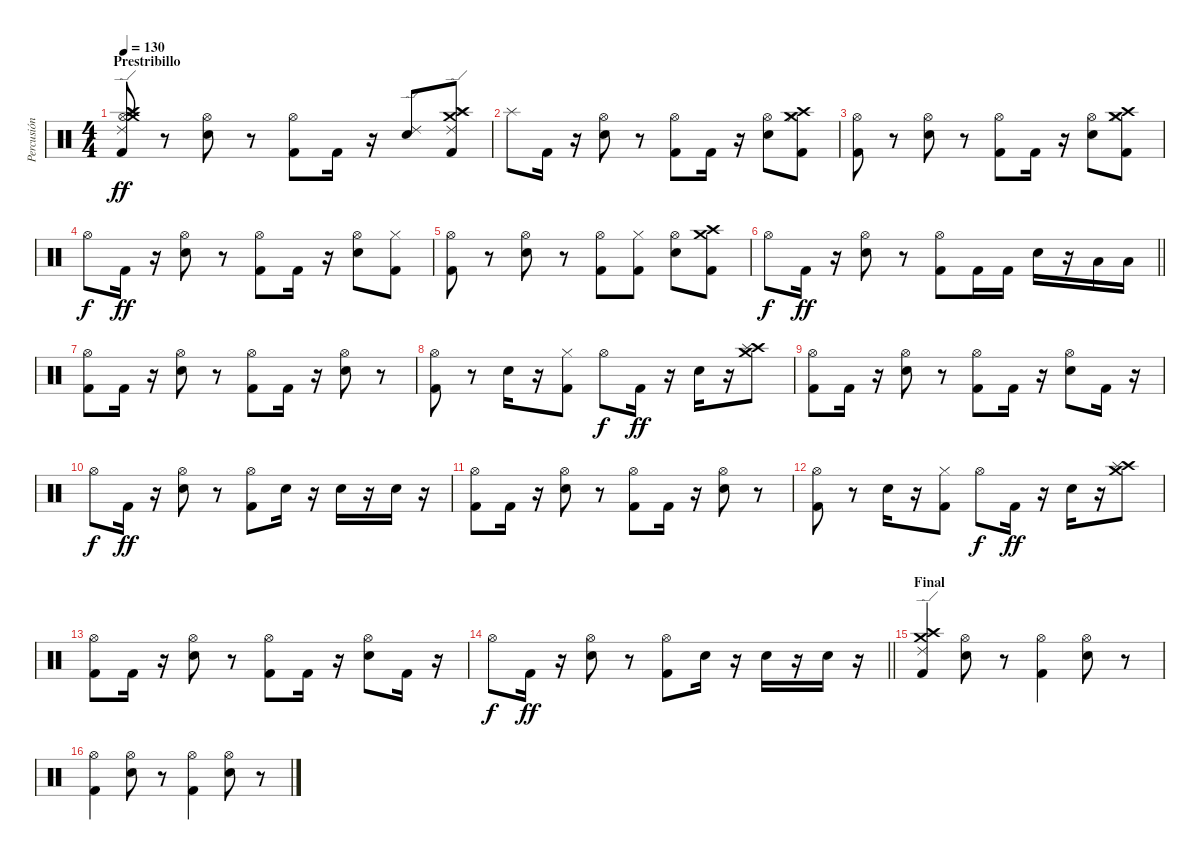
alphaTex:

\track ("Percusión" "Percusión") {instrument percussion}
\staff {score}
\articulation defaults
\ts (4 4)
\section ("" "Prestribillo")
\tempo 130
\clef neutral
\ks c
("Kick (hit) 2" "Hi-Hat (open)" "Crash high (hit)" "Splash (hit)" "Crash medium (hit)" "Ride (edge) 2").8{dy ff} r.8 ("Snare (hit) 2" "Hi-Hat (open)").8 r.8 ("Kick (hit) 2" "Hi-Hat (open)").8 "Kick (hit) 2".16 r.16 ("Snare (hit) 2" "Ride (edge) 2").8 ("Kick (hit) 2" "Crash high (hit)" "Splash (hit)" "Crash medium (hit)" "Ride (edge) 2").8 |
"Splash (hit)".8 "Kick (hit) 2".16 r.16 ("Snare (hit) 2" "Hi-Hat (open)").8 r.8 ("Kick (hit) 2" "Hi-Hat (open)").8 "Kick (hit) 2".16 r.16 ("Snare (hit) 2" "Hi-Hat (open)").8 ("Kick (hit) 2" "Hi-Hat (closed)" "Crash high (hit)" "Crash medium (hit)").8 |
("Kick (hit) 2" "Hi-Hat (open)").8 r.8 ("Snare (hit) 2" "Hi-Hat (open)").8 r.8 ("Kick (hit) 2" "Hi-Hat (open)").8 "Kick (hit) 2".16 r.16 ("Snare (hit) 2" "Hi-Hat (open)").8 ("Kick (hit) 2" "Hi-Hat (closed)" "Crash high (hit)" "Crash medium (hit)").8 |
"Hi-Hat (open)".8{dy f} "Kick (hit) 2".16{dy ff} r.16 ("Snare (hit) 2" "Hi-Hat (open)").8 r.8 ("Kick (hit) 2" "Hi-Hat (open)").8 "Kick (hit) 2".16 r.16 ("Snare (hit) 2" "Hi-Hat (open)").8 ("Kick (hit) 2" "Hi-Hat (closed)").8 |
("Kick (hit) 2" "Hi-Hat (open)").8 r.8 ("Snare (hit) 2" "Hi-Hat (open)").8 r.8 ("Kick (hit) 2" "Hi-Hat (open)").8 ("Kick (hit) 2" "Hi-Hat (closed)").8 ("Snare (hit) 2" "Hi-Hat (open)").8 ("Kick (hit) 2" "Crash high (hit)" "Crash medium (hit)").8 |
\barLineRight lightlight "Hi-Hat (open)".8{dy f} "Kick (hit) 2".16{dy ff}
r.16 ("Snare (hit) 2" "Hi-Hat (open)").8 r.8 ("Kick (hit) 2" "Hi-Hat (open)").8 "Kick (hit) 2".16 "Kick (hit) 2".16 "Snare (hit) 2".16 r.16 "Low Floor Tom (hit)".16 "Low Floor Tom (hit)".16 |
("Kick (hit) 2" "Hi-Hat (open)").8 "Kick (hit) 2".16 r.16 ("Snare (hit) 2" "Hi-Hat (open)").8 r.8 ("Kick (hit) 2" "Hi-Hat (open)").8 "Kick (hit) 2".16 r.16 ("Snare (hit) 2" "Hi-Hat (open)").8 r.8 |
("Kick (hit) 2" "Hi-Hat (open)").8 r.8 "Snare (hit) 2".16 r.16 ("Kick (hit) 2" "Hi-Hat (closed)").8 "Hi-Hat (open)".8{dy f} "Kick (hit) 2".16{dy ff} r.16 "Snare (hit) 2".16 r.16 ("Crash high (hit)" "Splash (hit)" "Crash medium (hit)").8 |
("Kick (hit) 2" "Hi-Hat (open)").8 "Kick (hit) 2".16 r.16 ("Snare (hit) 2" "Hi-Hat (open)").8 r.8 ("Kick (hit) 2" "Hi-Hat (open)").8 "Kick (hit) 2".16 r.16 ("Snare (hit) 2" "Hi-Hat (open)").8 "Kick (hit) 2".16 r.16 |
"Hi-Hat (open)".8{dy f} "Kick (hit) 2".16{dy ff} r.16 ("Snare (hit) 2" "Hi-Hat (open)").8 r.8 ("Kick (hit) 2" "Hi-Hat (open)").8 "Snare (hit) 2".16 r.16 "Snare (hit) 2".16 r.16 "Snare (hit) 2".16 r.16 |
("Kick (hit) 2" "Hi-Hat (open)").8 "Kick (hit) 2".16 r.16 ("Snare (hit) 2" "Hi-Hat (open)").8 r.8 ("Kick (hit) 2" "Hi-Hat (open)").8 "Kick (hit) 2".16 r.16 ("Snare (hit) 2" "Hi-Hat (open)").8 r.8 |
("Kick (hit) 2" "Hi-Hat (open)").8 r.8 "Snare (hit) 2".16 r.16 ("Kick (hit) 2" "Hi-Hat (closed)").8 "Hi-Hat (open)".8{dy f} "Kick (hit) 2".16{dy ff} r.16 "Snare (hit) 2".16 r.16 ("Crash high (hit)" "Splash (hit)" "Crash medium (hit)").8 |
("Kick (hit) 2" "Hi-Hat (open)").8 "Kick (hit) 2".16 r.16 ("Snare (hit) 2" "Hi-Hat (open)").8 r.8 ("Kick (hit) 2" "Hi-Hat (open)").8 "Kick (hit) 2".16 r.16 ("Snare (hit) 2" "Hi-Hat (open)").8 "Kick (hit) 2".16 r.16 |
\barLineRight lightlight "Hi-Hat (open)".8{dy f} "Kick (hit) 2".16{dy ff}
r.16 ("Snare (hit) 2" "Hi-Hat (open)").8 r.8 ("Kick (hit) 2" "Hi-Hat (open)").8 "Snare (hit) 2".16 r.16 "Snare (hit) 2".16 r.16 "Snare (hit) 2".16 r.16 |
\section ("" "Final")
("Kick (hit) 2" "Crash high (hit)" "Crash medium (hit)" "Ride (edge) 2").4 ("Snare (hit) 2" "Hi-Hat (open)").8 r.8 ("Kick (hit) 2" "Hi-Hat (open)").4 ("Snare (hit) 2" "Hi-Hat (open)").8 r.8 |
("Kick (hit) 2" "Hi-Hat (open)").4 ("Snare (hit) 2" "Hi-Hat (open)").8 r.8 ("Kick (hit) 2" "Hi-Hat (open)").4 ("Snare (hit) 2" "Hi-Hat (open)").8 r.8
